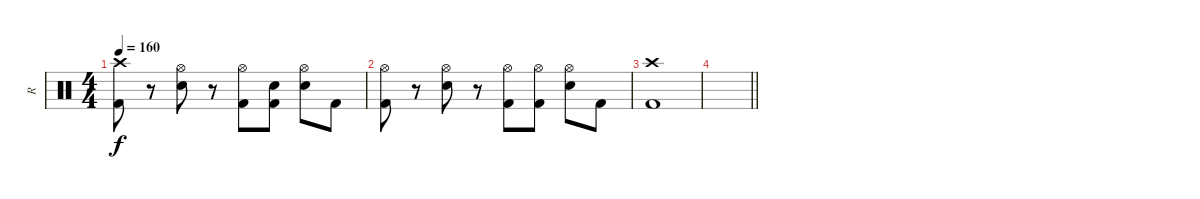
\track ("R" "R") {instrument percussion}
\staff {score}
\articulation defaults
\ts (4 4)
\tempo 160
\clef neutral
\ks c
("Crash high (hit)" "Kick (hit) 2").8{dy f} r.8 ("Hi-Hat (open)" "Electric Snare (hit)").8 r.8 ("Hi-Hat (open)" "Kick (hit) 2").8 ("Electric Snare (hit)" "Kick (hit) 2").8 ("Hi-Hat (open)" "Electric Snare (hit)").8 "Kick (hit) 2".8 |
("Hi-Hat (open)" "Kick (hit) 2").8 r.8 ("Hi-Hat (open)" "Electric Snare (hit)").8 r.8 ("Hi-Hat (open)" "Kick (hit) 2").8 ("Hi-Hat (open)" "Kick (hit) 2").8 ("Hi-Hat (open)" "Electric Snare (hit)").8 "Kick (hit) 2".8 |
("Crash high (hit)" "Kick (hit) 2").1 |
\barLineRight lightlight
